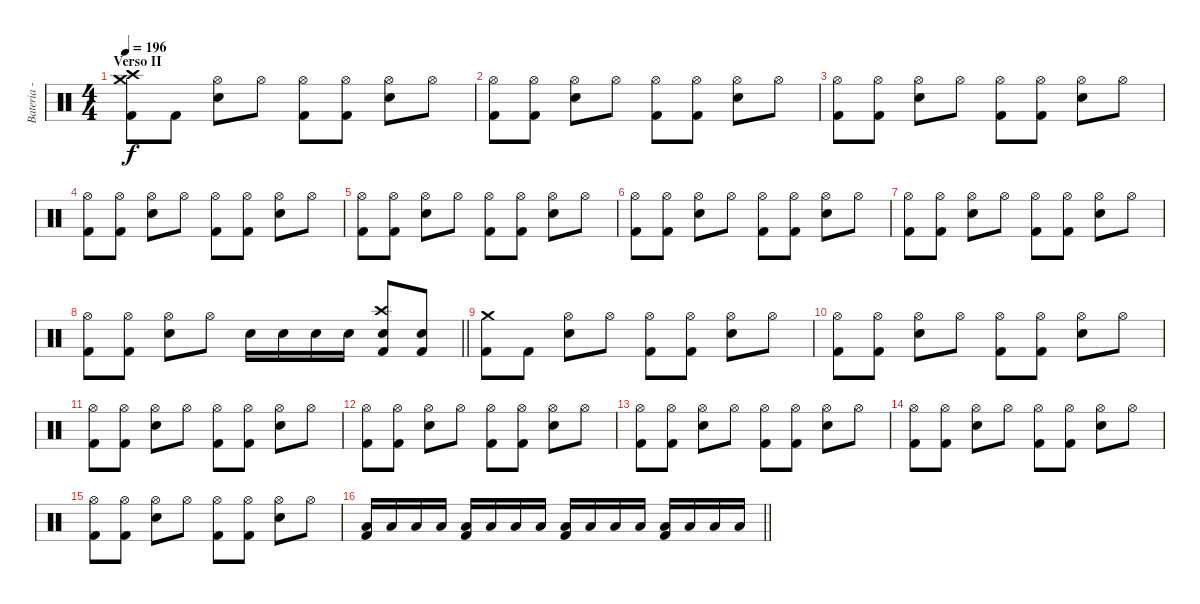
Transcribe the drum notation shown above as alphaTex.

\track ("Bateria - Larzon" "Bateria - ") {instrument percussion}
\staff {score}
\articulation defaults
\ts (4 4)
\section ("" "Verso II")
\tempo 196
\clef neutral
\ks c
("Kick (hit) 2" "Crash high (hit)" "Crash medium (hit)").8{dy f} "Kick (hit) 2".8 ("Snare (hit) 2" "Hi-Hat (open)").8 "Hi-Hat (open)".8 ("Kick (hit) 2" "Hi-Hat (open)").8 ("Kick (hit) 2" "Hi-Hat (open)").8 ("Snare (hit) 2" "Hi-Hat (open)").8 "Hi-Hat (open)".8 |
("Kick (hit) 2" "Hi-Hat (open)").8 ("Kick (hit) 2" "Hi-Hat (open)").8 ("Snare (hit) 2" "Hi-Hat (open)").8 "Hi-Hat (open)".8 ("Kick (hit) 2" "Hi-Hat (open)").8 ("Kick (hit) 2" "Hi-Hat (open)").8 ("Snare (hit) 2" "Hi-Hat (open)").8 "Hi-Hat (open)".8 |
("Kick (hit) 2" "Hi-Hat (open)").8 ("Kick (hit) 2" "Hi-Hat (open)").8 ("Snare (hit) 2" "Hi-Hat (open)").8 "Hi-Hat (open)".8 ("Kick (hit) 2" "Hi-Hat (open)").8 ("Kick (hit) 2" "Hi-Hat (open)").8 ("Snare (hit) 2" "Hi-Hat (open)").8 "Hi-Hat (open)".8 |
("Kick (hit) 2" "Hi-Hat (open)").8 ("Kick (hit) 2" "Hi-Hat (open)").8 ("Snare (hit) 2" "Hi-Hat (open)").8 "Hi-Hat (open)".8 ("Kick (hit) 2" "Hi-Hat (open)").8 ("Kick (hit) 2" "Hi-Hat (open)").8 ("Snare (hit) 2" "Hi-Hat (open)").8 "Hi-Hat (open)".8 |
("Kick (hit) 2" "Hi-Hat (open)").8 ("Kick (hit) 2" "Hi-Hat (open)").8 ("Snare (hit) 2" "Hi-Hat (open)").8 "Hi-Hat (open)".8 ("Kick (hit) 2" "Hi-Hat (open)").8 ("Kick (hit) 2" "Hi-Hat (open)").8 ("Snare (hit) 2" "Hi-Hat (open)").8 "Hi-Hat (open)".8 |
("Kick (hit) 2" "Hi-Hat (open)").8 ("Kick (hit) 2" "Hi-Hat (open)").8 ("Snare (hit) 2" "Hi-Hat (open)").8 "Hi-Hat (open)".8 ("Kick (hit) 2" "Hi-Hat (open)").8 ("Kick (hit) 2" "Hi-Hat (open)").8 ("Snare (hit) 2" "Hi-Hat (open)").8 "Hi-Hat (open)".8 |
("Kick (hit) 2" "Hi-Hat (open)").8 ("Kick (hit) 2" "Hi-Hat (open)").8 ("Snare (hit) 2" "Hi-Hat (open)").8 "Hi-Hat (open)".8 ("Kick (hit) 2" "Hi-Hat (open)").8 ("Kick (hit) 2" "Hi-Hat (open)").8 ("Snare (hit) 2" "Hi-Hat (open)").8 "Hi-Hat (open)".8 |
\barLineRight lightlight
("Kick (hit) 2" "Hi-Hat (open)").8 ("Kick (hit) 2" "Hi-Hat (open)").8 ("Snare (hit) 2" "Hi-Hat (open)").8 "Hi-Hat (open)".8 "Snare (hit) 2".16 "Snare (hit) 2".16 "Snare (hit) 2".16 "Snare (hit) 2".16 ("Kick (hit) 2" "Snare (hit) 2" "Crash high (hit)").8 ("Kick (hit) 2" "Snare (hit) 2").8 |
("Kick (hit) 2" "Crash medium (hit)").8 "Kick (hit) 2".8 ("Snare (hit) 2" "Hi-Hat (open)").8 "Hi-Hat (open)".8 ("Kick (hit) 2" "Hi-Hat (open)").8 ("Kick (hit) 2" "Hi-Hat (open)").8 ("Snare (hit) 2" "Hi-Hat (open)").8 "Hi-Hat (open)".8 |
("Kick (hit) 2" "Hi-Hat (open)").8 ("Kick (hit) 2" "Hi-Hat (open)").8 ("Snare (hit) 2" "Hi-Hat (open)").8 "Hi-Hat (open)".8 ("Kick (hit) 2" "Hi-Hat (open)").8 ("Kick (hit) 2" "Hi-Hat (open)").8 ("Snare (hit) 2" "Hi-Hat (open)").8 "Hi-Hat (open)".8 |
("Kick (hit) 2" "Hi-Hat (open)").8 ("Kick (hit) 2" "Hi-Hat (open)").8 ("Snare (hit) 2" "Hi-Hat (open)").8 "Hi-Hat (open)".8 ("Kick (hit) 2" "Hi-Hat (open)").8 ("Kick (hit) 2" "Hi-Hat (open)").8 ("Snare (hit) 2" "Hi-Hat (open)").8 "Hi-Hat (open)".8 |
("Kick (hit) 2" "Hi-Hat (open)").8 ("Kick (hit) 2" "Hi-Hat (open)").8 ("Snare (hit) 2" "Hi-Hat (open)").8 "Hi-Hat (open)".8 ("Kick (hit) 2" "Hi-Hat (open)").8 ("Kick (hit) 2" "Hi-Hat (open)").8 ("Snare (hit) 2" "Hi-Hat (open)").8 "Hi-Hat (open)".8 |
("Kick (hit) 2" "Hi-Hat (open)").8 ("Kick (hit) 2" "Hi-Hat (open)").8 ("Snare (hit) 2" "Hi-Hat (open)").8 "Hi-Hat (open)".8 ("Kick (hit) 2" "Hi-Hat (open)").8 ("Kick (hit) 2" "Hi-Hat (open)").8 ("Snare (hit) 2" "Hi-Hat (open)").8 "Hi-Hat (open)".8 |
("Kick (hit) 2" "Hi-Hat (open)").8 ("Kick (hit) 2" "Hi-Hat (open)").8 ("Snare (hit) 2" "Hi-Hat (open)").8 "Hi-Hat (open)".8 ("Kick (hit) 2" "Hi-Hat (open)").8 ("Kick (hit) 2" "Hi-Hat (open)").8 ("Snare (hit) 2" "Hi-Hat (open)").8 "Hi-Hat (open)".8 |
("Kick (hit) 2" "Hi-Hat (open)").8 ("Kick (hit) 2" "Hi-Hat (open)").8 ("Snare (hit) 2" "Hi-Hat (open)").8 "Hi-Hat (open)".8 ("Kick (hit) 2" "Hi-Hat (open)").8 ("Kick (hit) 2" "Hi-Hat (open)").8 ("Snare (hit) 2" "Hi-Hat (open)").8 "Hi-Hat (open)".8 |
\barLineRight lightlight
("Kick (hit) 2" "Low Tom (hit)").16{volume 16} "Low Tom (hit)".16 "Low Tom (hit)".16 "Low Tom (hit)".16 ("Kick (hit) 2" "Low Tom (hit)").16 "Low Tom (hit)".16 "Low Tom (hit)".16 "Low Tom (hit)".16 ("Kick (hit) 2" "Low Tom (hit)").16 "Low Tom (hit)".16 "Low Tom (hit)".16 "Low Tom (hit)".16 ("Kick (hit) 2" "Low Tom (hit)").16 "Low Tom (hit)".16 "Low Tom (hit)".16 "Low Tom (hit)".16
